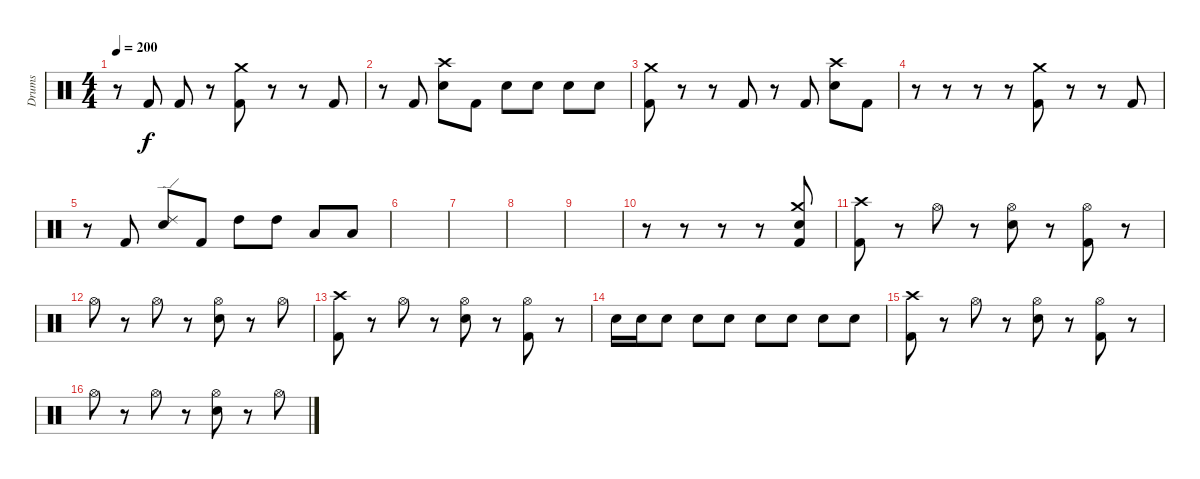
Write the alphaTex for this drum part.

\track ("Drums" "Drums") {instrument percussion}
\staff {score}
\articulation defaults
\ts (4 4)
\tempo 200
\clef neutral
\ks c
r.8{dy f} "Kick (hit) 2".8 "Kick (hit) 2".8 r.8 ("Crash medium (hit)" "Kick (hit) 2").8 r.8 r.8 "Kick (hit) 2".8 |
r.8 "Kick (hit) 2".8 ("Crash high (hit)" "Electric Snare (hit)").8 "Kick (hit) 2".8 "Electric Snare (hit)".8 "Electric Snare (hit)".8 "Electric Snare (hit)".8 "Electric Snare (hit)".8 |
("Crash medium (hit)" "Kick (hit) 2").8 r.8 r.8 "Kick (hit) 2".8 r.8 "Kick (hit) 2".8 ("Crash high (hit)" "Electric Snare (hit)").8 "Kick (hit) 2".8 |
r.8 r.8 r.8 r.8 ("Crash medium (hit)" "Kick (hit) 2").8 r.8 r.8 "Kick (hit) 2".8 |
r.8 "Kick (hit) 2".8 ("Ride (edge) 2" "Electric Snare (hit)").8 "Kick (hit) 2".8 "High Tom (hit)".8 "High Tom (hit)".8 "Low Tom (hit)".8 "Low Tom (hit)".8 |
|
|
|
|
r.8 r.8 r.8 r.8 ("Crash medium (hit)" "Electric Snare (hit)" "Kick (hit) 2").8 |
("Crash high (hit)" "Kick (hit) 2").8 r.8 "Hi-Hat (open)".8 r.8 ("Hi-Hat (open)" "Electric Snare (hit)").8 r.8 ("Hi-Hat (open)" "Kick (hit) 2").8 r.8 |
"Hi-Hat (open)".8 r.8 "Hi-Hat (open)".8 r.8 ("Hi-Hat (open)" "Electric Snare (hit)").8 r.8 "Hi-Hat (open)".8 |
("Crash high (hit)" "Kick (hit) 2").8 r.8 "Hi-Hat (open)".8 r.8 ("Hi-Hat (open)" "Electric Snare (hit)").8 r.8 ("Hi-Hat (open)" "Kick (hit) 2").8 r.8 |
"Electric Snare (hit)".16 "Electric Snare (hit)".16 "Electric Snare (hit)".8 "Electric Snare (hit)".8 "Electric Snare (hit)".8 "Electric Snare (hit)".8 "Electric Snare (hit)".8 "Electric Snare (hit)".8 "Electric Snare (hit)".8 |
("Crash high (hit)" "Kick (hit) 2").8 r.8 "Hi-Hat (open)".8 r.8 ("Hi-Hat (open)" "Electric Snare (hit)").8 r.8 ("Hi-Hat (open)" "Kick (hit) 2").8 r.8 |
"Hi-Hat (open)".8 r.8 "Hi-Hat (open)".8 r.8 ("Hi-Hat (open)" "Electric Snare (hit)").8 r.8 "Hi-Hat (open)".8
